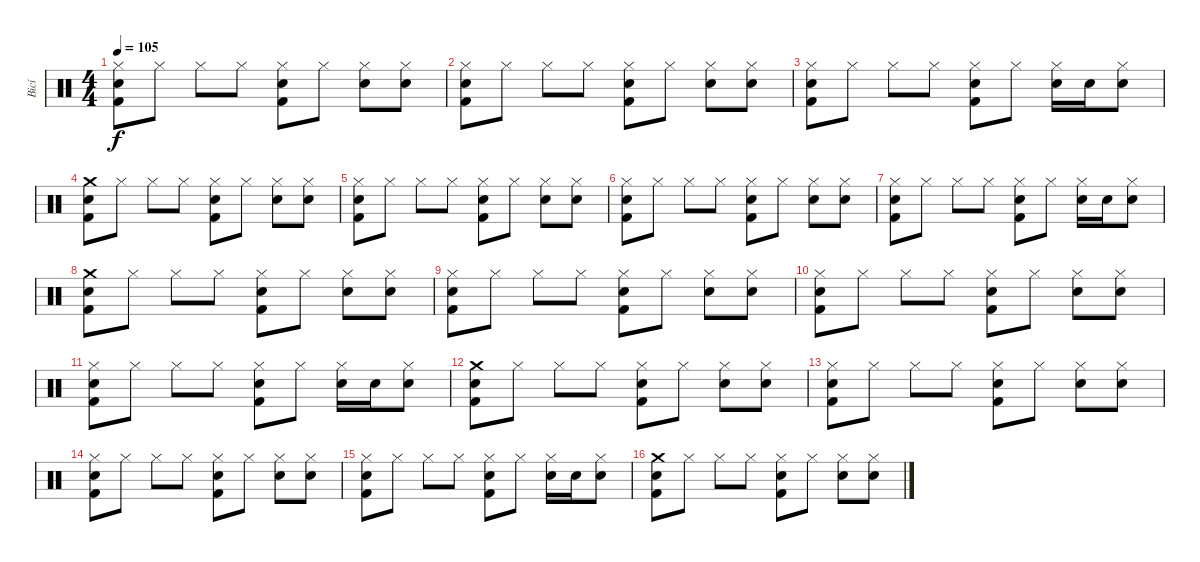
\track ("Bicí" "Bicí") {instrument percussion}
\staff {score}
\articulation defaults
\ts (4 4)
\tempo 105
\clef neutral
\ks c
("Hi-Hat (closed)" "Electric Snare (hit)" "Kick (hit) 2").8{dy f} "Hi-Hat (closed)".8 "Hi-Hat (closed)".8 "Hi-Hat (closed)".8 ("Hi-Hat (closed)" "Electric Snare (hit)" "Kick (hit) 2").8 "Hi-Hat (closed)".8 ("Hi-Hat (closed)" "Electric Snare (hit)").8 ("Hi-Hat (closed)" "Electric Snare (hit)").8 |
("Hi-Hat (closed)" "Electric Snare (hit)" "Kick (hit) 2").8 "Hi-Hat (closed)".8 "Hi-Hat (closed)".8 "Hi-Hat (closed)".8 ("Hi-Hat (closed)" "Electric Snare (hit)" "Kick (hit) 2").8 "Hi-Hat (closed)".8 ("Hi-Hat (closed)" "Electric Snare (hit)").8 ("Hi-Hat (closed)" "Electric Snare (hit)").8 |
("Hi-Hat (closed)" "Electric Snare (hit)" "Kick (hit) 2").8 "Hi-Hat (closed)".8 "Hi-Hat (closed)".8 "Hi-Hat (closed)".8 ("Hi-Hat (closed)" "Electric Snare (hit)" "Kick (hit) 2").8 "Hi-Hat (closed)".8 ("Hi-Hat (closed)" "Electric Snare (hit)").16 "Electric Snare (hit)".16 ("Hi-Hat (closed)" "Electric Snare (hit)").8 |
("Crash medium (hit)" "Electric Snare (hit)" "Kick (hit) 2").8 "Hi-Hat (closed)".8 "Hi-Hat (closed)".8 "Hi-Hat (closed)".8 ("Hi-Hat (closed)" "Electric Snare (hit)" "Kick (hit) 2").8 "Hi-Hat (closed)".8 ("Hi-Hat (closed)" "Electric Snare (hit)").8 ("Hi-Hat (closed)" "Electric Snare (hit)").8 |
("Hi-Hat (closed)" "Electric Snare (hit)" "Kick (hit) 2").8 "Hi-Hat (closed)".8 "Hi-Hat (closed)".8 "Hi-Hat (closed)".8 ("Hi-Hat (closed)" "Electric Snare (hit)" "Kick (hit) 2").8 "Hi-Hat (closed)".8 ("Hi-Hat (closed)" "Electric Snare (hit)").8 ("Hi-Hat (closed)" "Electric Snare (hit)").8 |
("Hi-Hat (closed)" "Electric Snare (hit)" "Kick (hit) 2").8 "Hi-Hat (closed)".8 "Hi-Hat (closed)".8 "Hi-Hat (closed)".8 ("Hi-Hat (closed)" "Electric Snare (hit)" "Kick (hit) 2").8 "Hi-Hat (closed)".8 ("Hi-Hat (closed)" "Electric Snare (hit)").8 ("Hi-Hat (closed)" "Electric Snare (hit)").8 |
("Hi-Hat (closed)" "Electric Snare (hit)" "Kick (hit) 2").8 "Hi-Hat (closed)".8 "Hi-Hat (closed)".8 "Hi-Hat (closed)".8 ("Hi-Hat (closed)" "Electric Snare (hit)" "Kick (hit) 2").8 "Hi-Hat (closed)".8 ("Hi-Hat (closed)" "Electric Snare (hit)").16 "Electric Snare (hit)".16 ("Hi-Hat (closed)" "Electric Snare (hit)").8 |
("Crash medium (hit)" "Electric Snare (hit)" "Kick (hit) 2").8 "Hi-Hat (closed)".8 "Hi-Hat (closed)".8 "Hi-Hat (closed)".8 ("Hi-Hat (closed)" "Electric Snare (hit)" "Kick (hit) 2").8 "Hi-Hat (closed)".8 ("Hi-Hat (closed)" "Electric Snare (hit)").8 ("Hi-Hat (closed)" "Electric Snare (hit)").8 |
("Hi-Hat (closed)" "Electric Snare (hit)" "Kick (hit) 2").8 "Hi-Hat (closed)".8 "Hi-Hat (closed)".8 "Hi-Hat (closed)".8 ("Hi-Hat (closed)" "Electric Snare (hit)" "Kick (hit) 2").8 "Hi-Hat (closed)".8 ("Hi-Hat (closed)" "Electric Snare (hit)").8 ("Hi-Hat (closed)" "Electric Snare (hit)").8 |
("Hi-Hat (closed)" "Electric Snare (hit)" "Kick (hit) 2").8 "Hi-Hat (closed)".8 "Hi-Hat (closed)".8 "Hi-Hat (closed)".8 ("Hi-Hat (closed)" "Electric Snare (hit)" "Kick (hit) 2").8 "Hi-Hat (closed)".8 ("Hi-Hat (closed)" "Electric Snare (hit)").8 ("Hi-Hat (closed)" "Electric Snare (hit)").8 |
("Hi-Hat (closed)" "Electric Snare (hit)" "Kick (hit) 2").8 "Hi-Hat (closed)".8 "Hi-Hat (closed)".8 "Hi-Hat (closed)".8 ("Hi-Hat (closed)" "Electric Snare (hit)" "Kick (hit) 2").8 "Hi-Hat (closed)".8 ("Hi-Hat (closed)" "Electric Snare (hit)").16 "Electric Snare (hit)".16 ("Hi-Hat (closed)" "Electric Snare (hit)").8 |
("Crash medium (hit)" "Electric Snare (hit)" "Kick (hit) 2").8 "Hi-Hat (closed)".8 "Hi-Hat (closed)".8 "Hi-Hat (closed)".8 ("Hi-Hat (closed)" "Electric Snare (hit)" "Kick (hit) 2").8 "Hi-Hat (closed)".8 ("Hi-Hat (closed)" "Electric Snare (hit)").8 ("Hi-Hat (closed)" "Electric Snare (hit)").8 |
("Hi-Hat (closed)" "Electric Snare (hit)" "Kick (hit) 2").8 "Hi-Hat (closed)".8 "Hi-Hat (closed)".8 "Hi-Hat (closed)".8 ("Hi-Hat (closed)" "Electric Snare (hit)" "Kick (hit) 2").8 "Hi-Hat (closed)".8 ("Hi-Hat (closed)" "Electric Snare (hit)").8 ("Hi-Hat (closed)" "Electric Snare (hit)").8 |
("Hi-Hat (closed)" "Electric Snare (hit)" "Kick (hit) 2").8 "Hi-Hat (closed)".8 "Hi-Hat (closed)".8 "Hi-Hat (closed)".8 ("Hi-Hat (closed)" "Electric Snare (hit)" "Kick (hit) 2").8 "Hi-Hat (closed)".8 ("Hi-Hat (closed)" "Electric Snare (hit)").8 ("Hi-Hat (closed)" "Electric Snare (hit)").8 |
("Hi-Hat (closed)" "Electric Snare (hit)" "Kick (hit) 2").8 "Hi-Hat (closed)".8 "Hi-Hat (closed)".8 "Hi-Hat (closed)".8 ("Hi-Hat (closed)" "Electric Snare (hit)" "Kick (hit) 2").8 "Hi-Hat (closed)".8 ("Hi-Hat (closed)" "Electric Snare (hit)").16 "Electric Snare (hit)".16 ("Hi-Hat (closed)" "Electric Snare (hit)").8 |
("Crash medium (hit)" "Electric Snare (hit)" "Kick (hit) 2").8 "Hi-Hat (closed)".8 "Hi-Hat (closed)".8 "Hi-Hat (closed)".8 ("Hi-Hat (closed)" "Electric Snare (hit)" "Kick (hit) 2").8 "Hi-Hat (closed)".8 ("Hi-Hat (closed)" "Electric Snare (hit)").8 ("Hi-Hat (closed)" "Electric Snare (hit)").8
